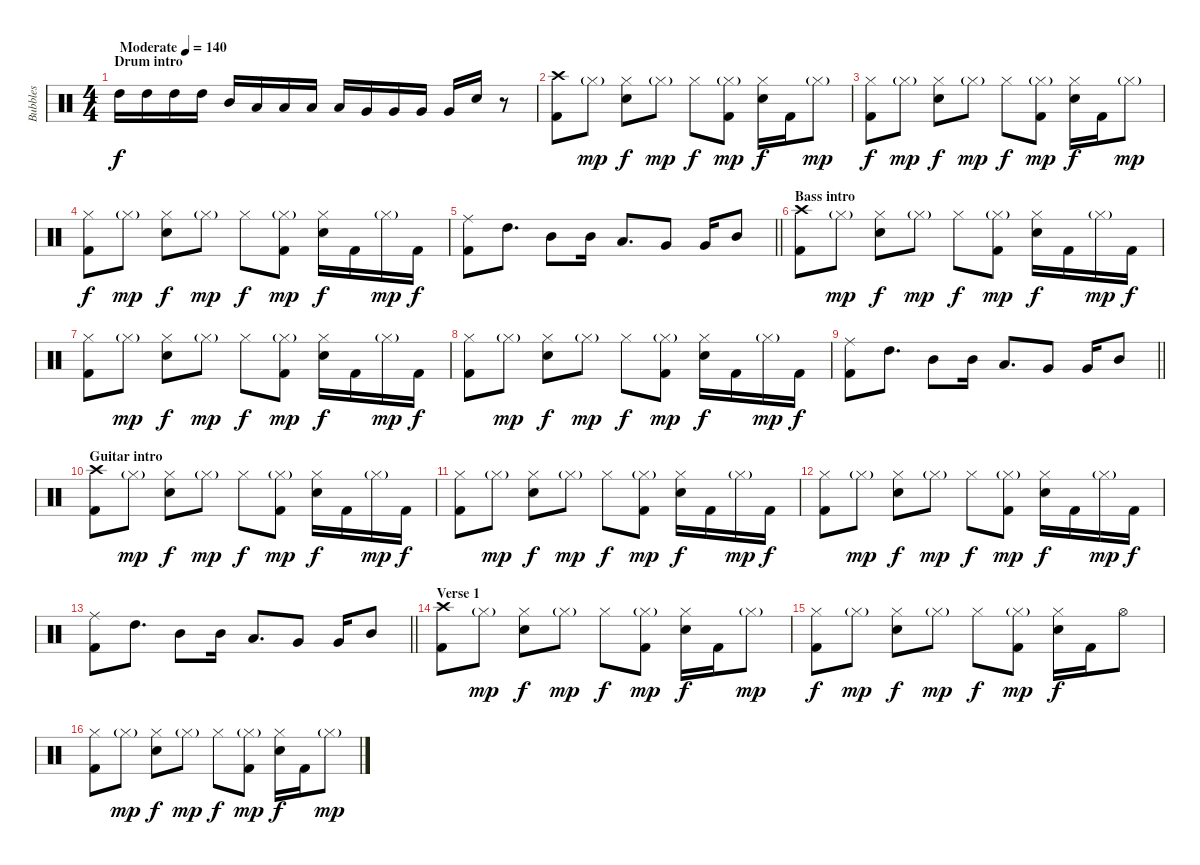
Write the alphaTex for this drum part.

\track ("Bubbles" "Bubbles") {instrument percussion}
\staff {score}
\articulation defaults
\ts (4 4)
\section ("" "Drum intro")
\tempo (140 "Moderate")
\clef neutral
\ks c "High Tom (hit)".16{dy f} "High Tom (hit)".16 "High Tom (hit)".16 "High Tom (hit)".16 "Mid Tom (hit)".16 "Low Tom (hit)".16 "Low Tom (hit)".16 "Low Tom (hit)".16 "Low Tom (hit)".16 "Very Low Tom (hit)".16 "Very Low Tom (hit)".16 "Very Low Tom (hit)".16 "Very Low Tom (hit)".16 "Snare (hit) 2".16
r.8 |
("Crash high (hit)" "Kick (hit) 2").8 "Hi-Hat (closed)"{g}.8{dy mp} ("Hi-Hat (closed)" "Snare (hit) 2").8{dy f} "Hi-Hat (closed)"{g}.8{dy mp} "Hi-Hat (closed)".8{dy f} ("Hi-Hat (closed)"{g} "Kick (hit) 2").8{dy mp} ("Hi-Hat (closed)" "Snare (hit) 2").16{dy f} "Kick (hit) 2".16 "Hi-Hat (closed)"{g}.8{dy mp} |
("Hi-Hat (closed)" "Kick (hit) 2").8{dy f} "Hi-Hat (closed)"{g}.8{dy mp} ("Hi-Hat (closed)" "Snare (hit) 2").8{dy f} "Hi-Hat (closed)"{g}.8{dy mp} "Hi-Hat (closed)".8{dy f} ("Hi-Hat (closed)"{g} "Kick (hit) 2").8{dy mp} ("Hi-Hat (closed)" "Snare (hit) 2").16{dy f} "Kick (hit) 2".16 "Hi-Hat (closed)"{g}.8{dy mp} |
("Hi-Hat (closed)" "Kick (hit) 2").8{dy f} "Hi-Hat (closed)"{g}.8{dy mp} ("Hi-Hat (closed)" "Snare (hit) 2").8{dy f} "Hi-Hat (closed)"{g}.8{dy mp} "Hi-Hat (closed)".8{dy f} ("Hi-Hat (closed)"{g} "Kick (hit) 2").8{dy mp} ("Hi-Hat (closed)" "Snare (hit) 2").16{dy f} "Kick (hit) 2".16 "Hi-Hat (closed)"{g}.16{dy mp} "Kick (hit) 2".16{dy f} |
\barLineRight lightlight
("Ride (middle)" "Kick (hit) 2").8 "High Tom (hit)".8{d} "Mid Tom (hit)".8 "Mid Tom (hit)".16 "Low Tom (hit)".8{d} "Very Low Tom (hit)".8 "Very Low Tom (hit)".16 "Mid Tom (hit)".8 |
\section ("" "Bass intro")
("Crash high (hit)" "Kick (hit) 2").8 "Hi-Hat (closed)"{g}.8{dy mp} ("Hi-Hat (closed)" "Snare (hit) 2").8{dy f} "Hi-Hat (closed)"{g}.8{dy mp} "Hi-Hat (closed)".8{dy f} ("Hi-Hat (closed)"{g} "Kick (hit) 2").8{dy mp} ("Hi-Hat (closed)" "Snare (hit) 2").16{dy f} "Kick (hit) 2".16 "Hi-Hat (closed)"{g}.16{dy mp} "Kick (hit) 2".16{dy f} |
("Hi-Hat (closed)" "Kick (hit) 2").8 "Hi-Hat (closed)"{g}.8{dy mp} ("Hi-Hat (closed)" "Snare (hit) 2").8{dy f} "Hi-Hat (closed)"{g}.8{dy mp} "Hi-Hat (closed)".8{dy f} ("Hi-Hat (closed)"{g} "Kick (hit) 2").8{dy mp} ("Hi-Hat (closed)" "Snare (hit) 2").16{dy f} "Kick (hit) 2".16 "Hi-Hat (closed)"{g}.16{dy mp} "Kick (hit) 2".16{dy f} |
("Hi-Hat (closed)" "Kick (hit) 2").8 "Hi-Hat (closed)"{g}.8{dy mp} ("Hi-Hat (closed)" "Snare (hit) 2").8{dy f} "Hi-Hat (closed)"{g}.8{dy mp} "Hi-Hat (closed)".8{dy f} ("Hi-Hat (closed)"{g} "Kick (hit) 2").8{dy mp} ("Hi-Hat (closed)" "Snare (hit) 2").16{dy f} "Kick (hit) 2".16 "Hi-Hat (closed)"{g}.16{dy mp} "Kick (hit) 2".16{dy f} |
\barLineRight lightlight
("Ride (middle)" "Kick (hit) 2").8 "High Tom (hit)".8{d} "Mid Tom (hit)".8 "Mid Tom (hit)".16 "Low Tom (hit)".8{d} "Very Low Tom (hit)".8 "Very Low Tom (hit)".16 "Mid Tom (hit)".8 |
\section ("" "Guitar intro")
("Crash high (hit)" "Kick (hit) 2").8 "Hi-Hat (closed)"{g}.8{dy mp} ("Hi-Hat (closed)" "Snare (hit) 2").8{dy f} "Hi-Hat (closed)"{g}.8{dy mp} "Hi-Hat (closed)".8{dy f} ("Hi-Hat (closed)"{g} "Kick (hit) 2").8{dy mp} ("Hi-Hat (closed)" "Snare (hit) 2").16{dy f} "Kick (hit) 2".16 "Hi-Hat (closed)"{g}.16{dy mp} "Kick (hit) 2".16{dy f} |
("Hi-Hat (closed)" "Kick (hit) 2").8 "Hi-Hat (closed)"{g}.8{dy mp} ("Hi-Hat (closed)" "Snare (hit) 2").8{dy f} "Hi-Hat (closed)"{g}.8{dy mp} "Hi-Hat (closed)".8{dy f} ("Hi-Hat (closed)"{g} "Kick (hit) 2").8{dy mp} ("Hi-Hat (closed)" "Snare (hit) 2").16{dy f} "Kick (hit) 2".16 "Hi-Hat (closed)"{g}.16{dy mp} "Kick (hit) 2".16{dy f} |
("Hi-Hat (closed)" "Kick (hit) 2").8 "Hi-Hat (closed)"{g}.8{dy mp} ("Hi-Hat (closed)" "Snare (hit) 2").8{dy f} "Hi-Hat (closed)"{g}.8{dy mp} "Hi-Hat (closed)".8{dy f} ("Hi-Hat (closed)"{g} "Kick (hit) 2").8{dy mp} ("Hi-Hat (closed)" "Snare (hit) 2").16{dy f} "Kick (hit) 2".16 "Hi-Hat (closed)"{g}.16{dy mp} "Kick (hit) 2".16{dy f} |
\barLineRight lightlight
("Ride (middle)" "Kick (hit) 2").8 "High Tom (hit)".8{d} "Mid Tom (hit)".8 "Mid Tom (hit)".16 "Low Tom (hit)".8{d} "Very Low Tom (hit)".8 "Very Low Tom (hit)".16 "Mid Tom (hit)".8 |
\section ("" "Verse 1")
("Crash high (hit)" "Kick (hit) 2").8 "Hi-Hat (closed)"{g}.8{dy mp} ("Hi-Hat (closed)" "Snare (hit) 2").8{dy f} "Hi-Hat (closed)"{g}.8{dy mp} "Hi-Hat (closed)".8{dy f} ("Hi-Hat (closed)"{g} "Kick (hit) 2").8{dy mp} ("Hi-Hat (closed)" "Snare (hit) 2").16{dy f} "Kick (hit) 2".16 "Hi-Hat (closed)"{g}.8{dy mp} |
("Hi-Hat (closed)" "Kick (hit) 2").8{dy f} "Hi-Hat (closed)"{g}.8{dy mp} ("Hi-Hat (closed)" "Snare (hit) 2").8{dy f} "Hi-Hat (closed)"{g}.8{dy mp} "Hi-Hat (closed)".8{dy f} ("Hi-Hat (closed)"{g} "Kick (hit) 2").8{dy mp} ("Hi-Hat (closed)" "Snare (hit) 2").16{dy f} "Kick (hit) 2".16 "Hi-Hat (open)".8 |
("Hi-Hat (closed)" "Kick (hit) 2").8 "Hi-Hat (closed)"{g}.8{dy mp} ("Hi-Hat (closed)" "Snare (hit) 2").8{dy f} "Hi-Hat (closed)"{g}.8{dy mp} "Hi-Hat (closed)".8{dy f} ("Hi-Hat (closed)"{g} "Kick (hit) 2").8{dy mp} ("Hi-Hat (closed)" "Snare (hit) 2").16{dy f} "Kick (hit) 2".16 "Hi-Hat (closed)"{g}.8{dy mp}
